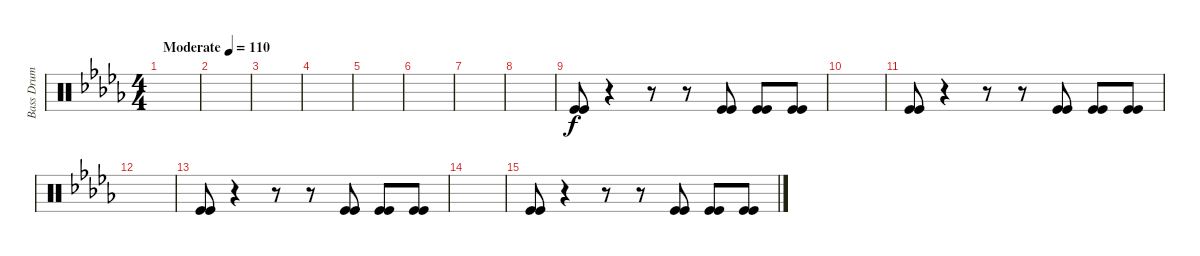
\track ("Bass Drum" "Bass Drum") {instrument percussion}
\staff {score}
\articulation defaults
\ts (4 4)
\tempo (110 "Moderate")
\clef neutral
\ks db
|
|
|
|
|
|
|
|
("Kick (hit)" "Kick (hit)").8 r.4 r.8 r.8 ("Kick (hit)" "Kick (hit)").8{dy f} ("Kick (hit)" "Kick (hit)").8 ("Kick (hit)" "Kick (hit)").8 |
|
("Kick (hit)" "Kick (hit)").8 r.4 r.8 r.8 ("Kick (hit)" "Kick (hit)").8 ("Kick (hit)" "Kick (hit)").8 ("Kick (hit)" "Kick (hit)").8 |
|
("Kick (hit)" "Kick (hit)").8 r.4 r.8 r.8 ("Kick (hit)" "Kick (hit)").8 ("Kick (hit)" "Kick (hit)").8 ("Kick (hit)" "Kick (hit)").8 |
|
("Kick (hit)" "Kick (hit)").8 r.4 r.8 r.8 ("Kick (hit)" "Kick (hit)").8 ("Kick (hit)" "Kick (hit)").8 ("Kick (hit)" "Kick (hit)").8
